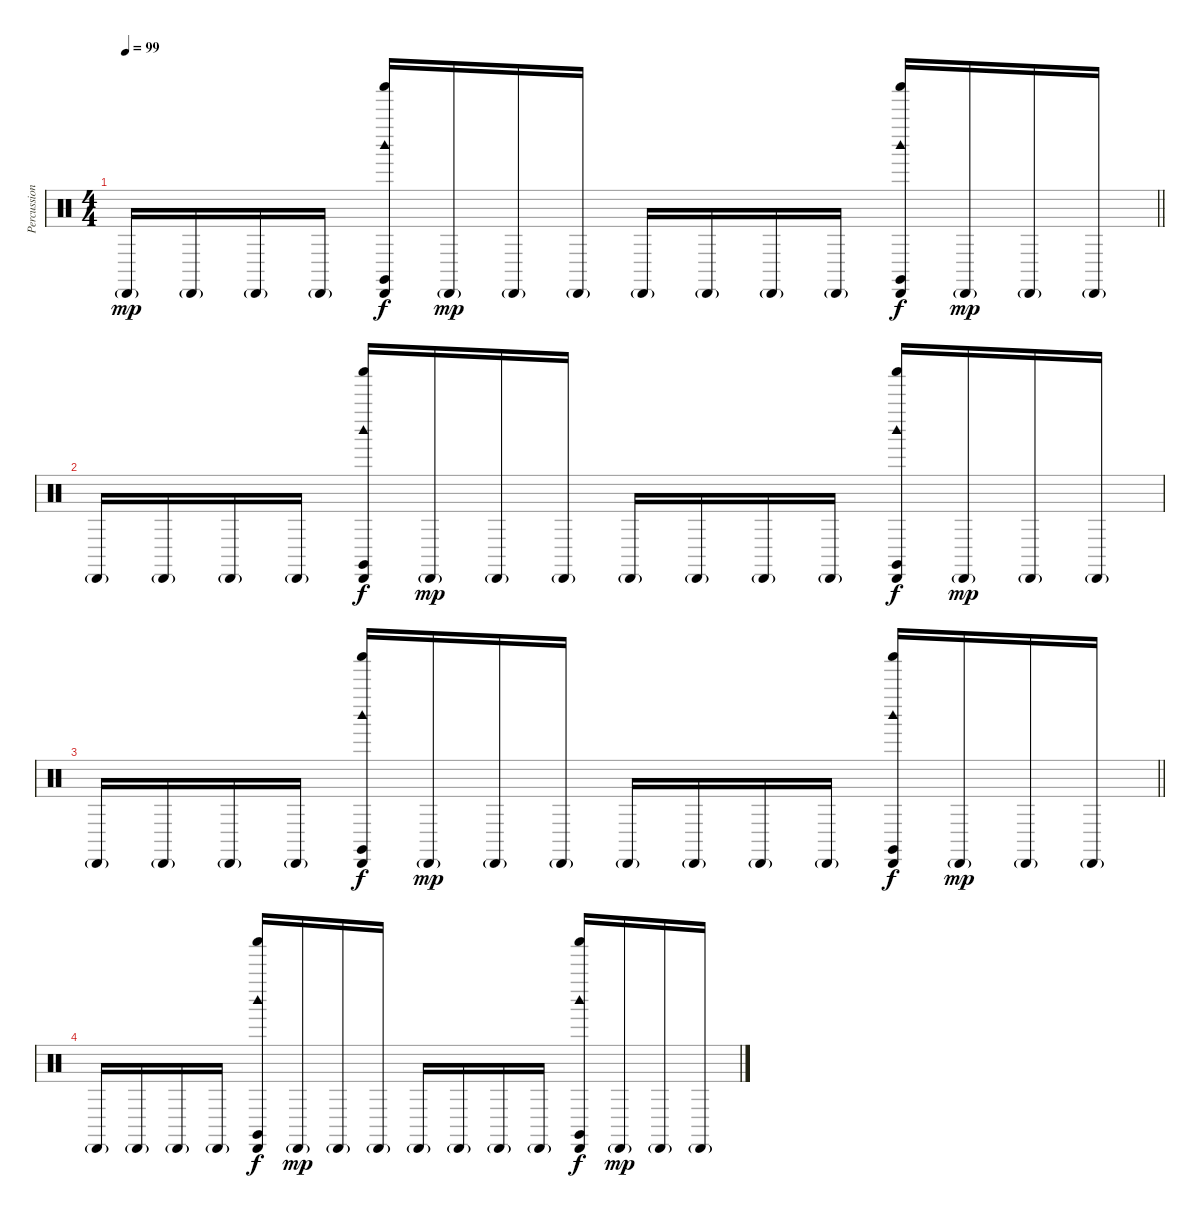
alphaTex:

\track ("Percussion" "Percussion") {instrument percussion}
\staff {score}
\articulation defaults
\ts (4 4)
\tempo 99
\clef neutral
\barLineRight lightlight
\ks c "Cabasa (hit)"{g}.16{dy mp} "Cabasa (hit)"{g}.16 "Cabasa (hit)"{g}.16 "Cabasa (hit)"{g}.16
("Cabasa (hit)" "Shaker (hit)" "Claves (hit)" "Woodblock high (hit)").16{dy f} "Cabasa (hit)"{g}.16{dy mp} "Cabasa (hit)"{g}.16 "Cabasa (hit)"{g}.16 "Cabasa (hit)"{g}.16 "Cabasa (hit)"{g}.16 "Cabasa (hit)"{g}.16 "Cabasa (hit)"{g}.16 ("Cabasa (hit)" "Shaker (hit)" "Claves (hit)" "Woodblock high (hit)").16{dy f} "Cabasa (hit)"{g}.16{dy mp} "Cabasa (hit)"{g}.16 "Cabasa (hit)"{g}.16 |
"Cabasa (hit)"{g}.16 "Cabasa (hit)"{g}.16 "Cabasa (hit)"{g}.16 "Cabasa (hit)"{g}.16 ("Cabasa (hit)" "Shaker (hit)" "Claves (hit)" "Woodblock high (hit)").16{dy f} "Cabasa (hit)"{g}.16{dy mp} "Cabasa (hit)"{g}.16 "Cabasa (hit)"{g}.16 "Cabasa (hit)"{g}.16 "Cabasa (hit)"{g}.16 "Cabasa (hit)"{g}.16 "Cabasa (hit)"{g}.16 ("Cabasa (hit)" "Shaker (hit)" "Claves (hit)" "Woodblock high (hit)").16{dy f} "Cabasa (hit)"{g}.16{dy mp} "Cabasa (hit)"{g}.16 "Cabasa (hit)"{g}.16 |
\barLineRight lightlight "Cabasa (hit)"{g}.16 "Cabasa (hit)"{g}.16 "Cabasa (hit)"{g}.16 "Cabasa (hit)"{g}.16
("Cabasa (hit)" "Shaker (hit)" "Claves (hit)" "Woodblock high (hit)").16{dy f} "Cabasa (hit)"{g}.16{dy mp} "Cabasa (hit)"{g}.16 "Cabasa (hit)"{g}.16 "Cabasa (hit)"{g}.16 "Cabasa (hit)"{g}.16 "Cabasa (hit)"{g}.16 "Cabasa (hit)"{g}.16 ("Cabasa (hit)" "Shaker (hit)" "Claves (hit)" "Woodblock high (hit)").16{dy f} "Cabasa (hit)"{g}.16{dy mp} "Cabasa (hit)"{g}.16 "Cabasa (hit)"{g}.16 |
"Cabasa (hit)"{g}.16 "Cabasa (hit)"{g}.16 "Cabasa (hit)"{g}.16 "Cabasa (hit)"{g}.16 ("Cabasa (hit)" "Shaker (hit)" "Claves (hit)" "Woodblock high (hit)").16{dy f} "Cabasa (hit)"{g}.16{dy mp} "Cabasa (hit)"{g}.16 "Cabasa (hit)"{g}.16 "Cabasa (hit)"{g}.16 "Cabasa (hit)"{g}.16 "Cabasa (hit)"{g}.16 "Cabasa (hit)"{g}.16 ("Cabasa (hit)" "Shaker (hit)" "Claves (hit)" "Woodblock high (hit)").16{dy f} "Cabasa (hit)"{g}.16{dy mp} "Cabasa (hit)"{g}.16 "Cabasa (hit)"{g}.16
